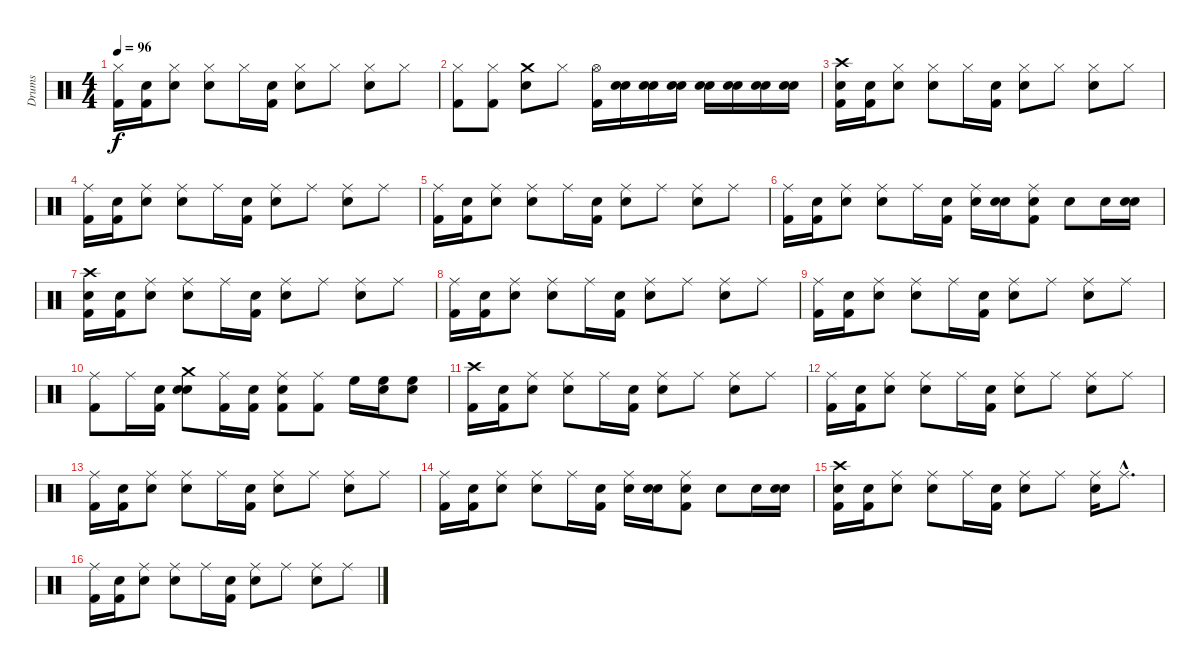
\track ("Drums" "Drums") {instrument percussion}
\staff {score}
\articulation defaults
\ts (4 4)
\tempo 96
\clef neutral
\ks c
("Hi-Hat (closed)" "Kick (hit) 2").16{dy f} ("Snare (hit)" "Kick (hit) 2").16 ("Snare (hit)" "Hi-Hat (closed)").8 ("Snare (hit) 2" "Hi-Hat (closed)").8 "Hi-Hat (closed)".16 ("Snare (hit)" "Kick (hit) 2").16 ("Snare (hit)" "Hi-Hat (closed)").8 "Hi-Hat (closed)".8 ("Snare (hit) 2" "Hi-Hat (closed)").8 "Hi-Hat (closed)".8 |
("Kick (hit) 2" "Hi-Hat (closed)").8 ("Kick (hit) 2" "Hi-Hat (closed)").8 ("Crash medium (hit)" "Snare (hit) 2").8 "Hi-Hat (closed)".8 ("Hi-Hat (open)" "Kick (hit) 2").16 ("Snare (hit)" "Snare (hit) 2").16 ("Snare (hit)" "Snare (hit) 2").16 ("Snare (hit)" "Snare (hit) 2").16 ("Snare (hit)" "Electric Snare (hit)").16 ("Snare (hit)" "Electric Snare (hit)").16 ("Snare (hit)" "Electric Snare (hit)").16 ("Snare (hit)" "Electric Snare (hit)").16 |
("Snare (hit)" "Crash high (hit)" "Kick (hit) 2").16 ("Snare (hit)" "Kick (hit) 2").16 ("Snare (hit)" "Hi-Hat (closed)").8 ("Snare (hit) 2" "Hi-Hat (closed)").8 "Hi-Hat (closed)".16 ("Snare (hit)" "Kick (hit) 2").16 ("Snare (hit)" "Hi-Hat (closed)").8 "Hi-Hat (closed)".8 ("Snare (hit) 2" "Hi-Hat (closed)").8 "Hi-Hat (closed)".8 |
("Ride (middle)" "Kick (hit) 2").16 ("Snare (hit)" "Kick (hit) 2").16 ("Snare (hit)" "Ride (middle)").8 ("Snare (hit) 2" "Ride (middle)").8 "Ride (middle)".16 ("Snare (hit)" "Kick (hit) 2").16 ("Snare (hit)" "Ride (middle)").8 "Ride (middle)".8 ("Snare (hit) 2" "Ride (middle)").8 "Ride (middle)".8 |
("Ride (middle)" "Kick (hit) 2").16 ("Snare (hit)" "Kick (hit) 2").16 ("Snare (hit)" "Ride (middle)").8 ("Snare (hit) 2" "Ride (middle)").8 "Ride (middle)".16 ("Snare (hit)" "Kick (hit) 2").16 ("Snare (hit)" "Ride (middle)").8 "Ride (middle)".8 ("Snare (hit) 2" "Ride (middle)").8 "Ride (middle)".8 |
("Ride (middle)" "Kick (hit) 2").16 ("Snare (hit)" "Kick (hit) 2").16 ("Snare (hit)" "Ride (middle)").8 ("Snare (hit) 2" "Ride (middle)").8 "Ride (middle)".16 ("Snare (hit)" "Kick (hit) 2").16 ("Snare (hit)" "Ride (middle)").16 ("Snare (hit)" "Snare (hit) 2").16 ("Snare (hit)" "Kick (hit) 2" "Ride (middle)").8 "Snare (hit) 2".8 "Snare (hit) 2".16 ("Snare (hit)" "Snare (hit) 2").16 |
("Snare (hit)" "Crash high (hit)" "Kick (hit) 2").16 ("Snare (hit)" "Kick (hit) 2").16 ("Snare (hit)" "Ride (middle)").8 ("Snare (hit) 2" "Ride (middle)").8 "Ride (middle)".16 ("Snare (hit)" "Kick (hit) 2").16 ("Snare (hit)" "Ride (middle)").8 "Ride (middle)".8 ("Snare (hit) 2" "Ride (middle)").8 "Ride (middle)".8 |
("Ride (middle)" "Kick (hit) 2").16 ("Snare (hit)" "Kick (hit) 2").16 ("Snare (hit)" "Ride (middle)").8 ("Snare (hit) 2" "Ride (middle)").8 "Ride (middle)".16 ("Snare (hit)" "Kick (hit) 2").16 ("Snare (hit)" "Ride (middle)").8 "Ride (middle)".8 ("Snare (hit) 2" "Ride (middle)").8 "Ride (middle)".8 |
("Ride (middle)" "Kick (hit) 2").16 ("Snare (hit)" "Kick (hit) 2").16 ("Snare (hit)" "Ride (middle)").8 ("Snare (hit) 2" "Ride (middle)").8 "Ride (middle)".16 ("Snare (hit)" "Kick (hit) 2").16 ("Snare (hit)" "Ride (middle)").8 "Ride (middle)".8 ("Snare (hit) 2" "Ride (middle)").8 "Ride (middle)".8 |
("Kick (hit) 2" "Ride (middle)").8 "Ride (middle)".16 ("Snare (hit)" "Kick (hit) 2").16 ("Snare (hit)" "Crash medium (hit)" "Snare (hit) 2").8 ("Kick (hit) 2" "Ride (middle)").16 ("Snare (hit)" "Kick (hit) 2").16 ("Snare (hit)" "Kick (hit) 2" "Ride (middle)").8 ("Kick (hit) 2" "Ride (middle)").8 "High Floor Tom (hit)".16 ("Snare (hit)" "High Floor Tom (hit)").16 ("Snare (hit)" "High Floor Tom (hit)").8 |
("Crash high (hit)" "Kick (hit) 2").16 ("Snare (hit)" "Kick (hit) 2").16 ("Snare (hit)" "Ride (middle)").8 ("Snare (hit) 2" "Ride (middle)").8 "Ride (middle)".16 ("Snare (hit)" "Kick (hit) 2").16 ("Snare (hit)" "Ride (middle)").8 "Ride (middle)".8 ("Snare (hit) 2" "Ride (middle)").8 "Ride (middle)".8 |
("Ride (middle)" "Kick (hit) 2").16 ("Snare (hit)" "Kick (hit) 2").16 ("Snare (hit)" "Ride (middle)").8 ("Snare (hit) 2" "Ride (middle)").8 "Ride (middle)".16 ("Snare (hit)" "Kick (hit) 2").16 ("Snare (hit)" "Ride (middle)").8 "Ride (middle)".8 ("Snare (hit) 2" "Ride (middle)").8 "Ride (middle)".8 |
("Ride (middle)" "Kick (hit) 2").16 ("Snare (hit)" "Kick (hit) 2").16 ("Snare (hit)" "Ride (middle)").8 ("Snare (hit) 2" "Ride (middle)").8 "Ride (middle)".16 ("Snare (hit)" "Kick (hit) 2").16 ("Snare (hit)" "Ride (middle)").8 "Ride (middle)".8 ("Snare (hit) 2" "Ride (middle)").8 "Ride (middle)".8 |
("Ride (middle)" "Kick (hit) 2").16 ("Snare (hit)" "Kick (hit) 2").16 ("Snare (hit)" "Ride (middle)").8 ("Snare (hit) 2" "Ride (middle)").8 "Ride (middle)".16 ("Snare (hit)" "Kick (hit) 2").16 ("Snare (hit)" "Ride (middle)").16 ("Snare (hit)" "Snare (hit) 2").16 ("Snare (hit)" "Kick (hit) 2" "Ride (middle)").8 "Snare (hit) 2".8 "Snare (hit) 2".16 ("Snare (hit)" "Snare (hit) 2").16 |
("Snare (hit)" "Crash high (hit)" "Kick (hit) 2").16 ("Snare (hit)" "Kick (hit) 2").16 ("Snare (hit)" "Ride (middle)").8 ("Snare (hit) 2" "Ride (middle)").8 "Ride (middle)".16 ("Snare (hit)" "Kick (hit) 2").16 ("Snare (hit)" "Ride (middle)").8 "Ride (middle)".8 ("Snare (hit) 2" "Ride (middle)").16 "Ride (middle)"{hac}.8{d} |
("Ride (middle)" "Kick (hit) 2").16 ("Snare (hit)" "Kick (hit) 2").16 ("Snare (hit)" "Ride (middle)").8 ("Snare (hit) 2" "Ride (middle)").8 "Ride (middle)".16 ("Snare (hit)" "Kick (hit) 2").16 ("Snare (hit)" "Ride (middle)").8 "Ride (middle)".8 ("Snare (hit) 2" "Ride (middle)").8 "Ride (middle)".8
